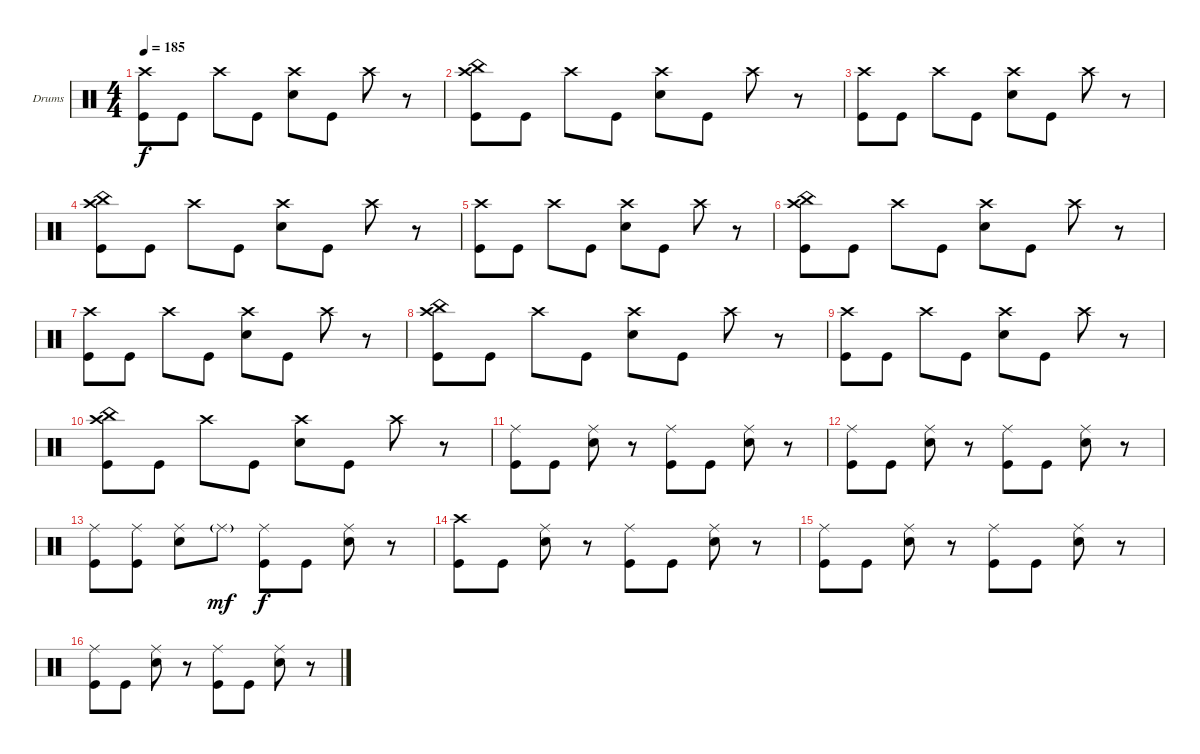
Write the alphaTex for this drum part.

\defaultSystemsLayout 4
\bracketExtendMode nobrackets
\firstSystemTrackNameOrientation horizontal
\otherSystemsTrackNameOrientation horizontal
\track ("Drumkit" "Drums") {instrument percussion}
\staff {score}
\articulation defaults
\ts (4 4)
\tempo 185
\clef neutral
\ks c
("Crash high (hit)" "Kick (hit)").8{dy f} "Kick (hit)".8 "Crash high (hit)".8 "Kick (hit)".8 ("Crash high (hit)" "Snare (hit) 2").8 "Kick (hit)".8 "Crash high (hit)".8 r.8 |
("Crash high (hit)" "China (hit)" "Kick (hit)").8 "Kick (hit)".8 "Crash high (hit)".8 "Kick (hit)".8 ("Crash high (hit)" "Snare (hit) 2").8 "Kick (hit)".8 "Crash high (hit)".8 r.8 |
("Crash high (hit)" "Kick (hit)").8 "Kick (hit)".8 "Crash high (hit)".8 "Kick (hit)".8 ("Crash high (hit)" "Snare (hit) 2").8 "Kick (hit)".8 "Crash high (hit)".8 r.8 |
("Crash high (hit)" "China (hit)" "Kick (hit)").8 "Kick (hit)".8 "Crash high (hit)".8 "Kick (hit)".8 ("Crash high (hit)" "Snare (hit) 2").8 "Kick (hit)".8 "Crash high (hit)".8 r.8 |
("Crash high (hit)" "Kick (hit)").8 "Kick (hit)".8 "Crash high (hit)".8 "Kick (hit)".8 ("Crash high (hit)" "Snare (hit) 2").8 "Kick (hit)".8 "Crash high (hit)".8 r.8 |
("Crash high (hit)" "China (hit)" "Kick (hit)").8 "Kick (hit)".8 "Crash high (hit)".8 "Kick (hit)".8 ("Crash high (hit)" "Snare (hit) 2").8 "Kick (hit)".8 "Crash high (hit)".8 r.8 |
("Crash high (hit)" "Kick (hit)").8 "Kick (hit)".8 "Crash high (hit)".8 "Kick (hit)".8 ("Crash high (hit)" "Snare (hit) 2").8 "Kick (hit)".8 "Crash high (hit)".8 r.8 |
("Crash high (hit)" "China (hit)" "Kick (hit)").8 "Kick (hit)".8 "Crash high (hit)".8 "Kick (hit)".8 ("Crash high (hit)" "Snare (hit) 2").8 "Kick (hit)".8 "Crash high (hit)".8 r.8 |
("Crash high (hit)" "Kick (hit)").8 "Kick (hit)".8 "Crash high (hit)".8 "Kick (hit)".8 ("Crash high (hit)" "Snare (hit) 2").8 "Kick (hit)".8 "Crash high (hit)".8 r.8 |
("Crash high (hit)" "China (hit)" "Kick (hit)").8 "Kick (hit)".8 "Crash high (hit)".8 "Kick (hit)".8 ("Crash high (hit)" "Snare (hit) 2").8 "Kick (hit)".8 "Crash high (hit)".8 r.8 |
("Ride (middle)" "Kick (hit)").8 "Kick (hit)".8 ("Ride (middle)" "Snare (hit) 2").8 r.8 ("Ride (middle)" "Kick (hit)").8 "Kick (hit)".8 ("Ride (middle)" "Snare (hit) 2").8 r.8 |
("Ride (middle)" "Kick (hit)").8 "Kick (hit)".8 ("Ride (middle)" "Snare (hit) 2").8 r.8 ("Ride (middle)" "Kick (hit)").8 "Kick (hit)".8 ("Ride (middle)" "Snare (hit) 2").8 r.8 |
("Ride (middle)" "Kick (hit)").8 ("Ride (middle)" "Kick (hit)").8 ("Ride (middle)" "Snare (hit) 2").8 "Ride (middle)"{g}.8{dy mf} ("Ride (middle)" "Kick (hit)").8{dy f} "Kick (hit)".8 ("Ride (middle)" "Snare (hit) 2").8 r.8 |
("Crash high (hit)" "Kick (hit)").8 "Kick (hit)".8 ("Ride (middle)" "Snare (hit) 2").8 r.8 ("Ride (middle)" "Kick (hit)").8 "Kick (hit)".8 ("Ride (middle)" "Snare (hit) 2").8 r.8 |
("Ride (middle)" "Kick (hit)").8 "Kick (hit)".8 ("Ride (middle)" "Snare (hit) 2").8 r.8 ("Ride (middle)" "Kick (hit)").8 "Kick (hit)".8 ("Ride (middle)" "Snare (hit) 2").8 r.8 |
("Ride (middle)" "Kick (hit)").8 "Kick (hit)".8 ("Ride (middle)" "Snare (hit) 2").8 r.8 ("Ride (middle)" "Kick (hit)").8 "Kick (hit)".8 ("Ride (middle)" "Snare (hit) 2").8 r.8
